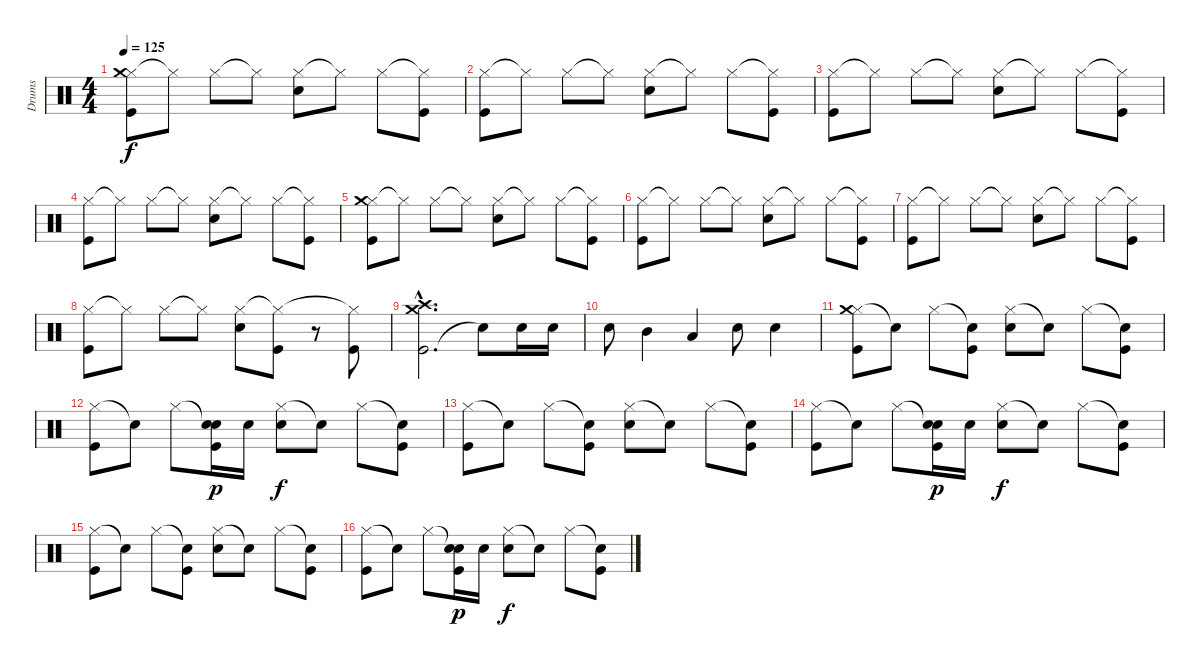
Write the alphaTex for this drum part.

\track ("Drums" "Drums") {instrument percussion}
\staff {score}
\articulation defaults
\ts (4 4)
\tempo 125
\clef neutral
\ks c
("Hi-Hat (closed)" "Kick (hit)" "Crash medium (hit)").8{dy f} "Hi-Hat (closed)"{t}.8 "Hi-Hat (closed)".8 "Hi-Hat (closed)"{t}.8 ("Hi-Hat (closed)" "Snare (hit) 2").8 "Hi-Hat (closed)"{t}.8 "Hi-Hat (closed)".8 ("Hi-Hat (closed)"{t} "Kick (hit)").8 |
("Hi-Hat (closed)" "Kick (hit)").8 "Hi-Hat (closed)"{t}.8 "Hi-Hat (closed)".8 "Hi-Hat (closed)"{t}.8 ("Hi-Hat (closed)" "Snare (hit) 2").8 "Hi-Hat (closed)"{t}.8 "Hi-Hat (closed)".8 ("Hi-Hat (closed)"{t} "Kick (hit)").8 |
("Hi-Hat (closed)" "Kick (hit)").8 "Hi-Hat (closed)"{t}.8 "Hi-Hat (closed)".8 "Hi-Hat (closed)"{t}.8 ("Hi-Hat (closed)" "Snare (hit) 2").8 "Hi-Hat (closed)"{t}.8 "Hi-Hat (closed)".8 ("Hi-Hat (closed)"{t} "Kick (hit)").8 |
("Hi-Hat (closed)" "Kick (hit)").8 "Hi-Hat (closed)"{t}.8 "Hi-Hat (closed)".8 "Hi-Hat (closed)"{t}.8 ("Hi-Hat (closed)" "Snare (hit) 2").8 "Hi-Hat (closed)"{t}.8 "Hi-Hat (closed)".8 ("Hi-Hat (closed)"{t} "Kick (hit)").8 |
("Hi-Hat (closed)" "Kick (hit)" "Crash medium (hit)").8 "Hi-Hat (closed)"{t}.8 "Hi-Hat (closed)".8 "Hi-Hat (closed)"{t}.8 ("Hi-Hat (closed)" "Snare (hit) 2").8 "Hi-Hat (closed)"{t}.8 "Hi-Hat (closed)".8 ("Hi-Hat (closed)"{t} "Kick (hit)").8 |
("Hi-Hat (closed)" "Kick (hit)").8 "Hi-Hat (closed)"{t}.8 "Hi-Hat (closed)".8 "Hi-Hat (closed)"{t}.8 ("Hi-Hat (closed)" "Snare (hit) 2").8 "Hi-Hat (closed)"{t}.8 "Hi-Hat (closed)".8 ("Hi-Hat (closed)"{t} "Kick (hit)").8 |
("Hi-Hat (closed)" "Kick (hit)").8 "Hi-Hat (closed)"{t}.8 "Hi-Hat (closed)".8 "Hi-Hat (closed)"{t}.8 ("Hi-Hat (closed)" "Snare (hit) 2").8 "Hi-Hat (closed)"{t}.8 "Hi-Hat (closed)".8 ("Hi-Hat (closed)"{t} "Kick (hit)").8 |
("Hi-Hat (closed)" "Kick (hit)").8 "Hi-Hat (closed)"{t}.8 "Hi-Hat (closed)".8 "Hi-Hat (closed)"{t}.8 ("Hi-Hat (closed)" "Snare (hit) 2").8 ("Hi-Hat (closed)"{t} "Kick (hit)").8 r.8 ("Hi-Hat (closed)"{t} "Kick (hit)").8 |
("Kick (hit)"{hac} "Crash high (hit)"{hac} "Crash medium (hit)"{hac}).2{d} "Snare (hit)"{t}.8 "Snare (hit) 2".16 "Snare (hit) 2".16 |
"Snare (hit) 2".8 "Mid Tom (hit)".4 "Low Tom (hit)".4 "Snare (hit) 2".8 "Snare (hit) 2".4 |
("Hi-Hat (closed)" "Crash medium (hit)" "Kick (hit)").8 "Snare (hit)"{t}.8 "Hi-Hat (closed)".8 ("Snare (hit)"{t} "Kick (hit)").8 ("Hi-Hat (closed)" "Snare (hit) 2").8 "Snare (hit)"{t}.8 "Hi-Hat (closed)".8 ("Snare (hit)"{t} "Kick (hit)").8 |
("Hi-Hat (closed)" "Kick (hit)").8 "Snare (hit)"{t}.8 "Hi-Hat (closed)".8 ("Snare (hit)"{t} "Kick (hit)" "Snare (hit) 2").16{dy p} "Snare (hit) 2".16 ("Hi-Hat (closed)" "Snare (hit) 2").8{dy f} "Snare (hit)"{t}.8 "Hi-Hat (closed)".8 ("Snare (hit)"{t} "Kick (hit)").8 |
("Hi-Hat (closed)" "Kick (hit)").8 "Snare (hit)"{t}.8 "Hi-Hat (closed)".8 ("Snare (hit)"{t} "Kick (hit)").8 ("Hi-Hat (closed)" "Snare (hit) 2").8 "Snare (hit)"{t}.8 "Hi-Hat (closed)".8 ("Snare (hit)"{t} "Kick (hit)").8 |
("Hi-Hat (closed)" "Kick (hit)").8 "Snare (hit)"{t}.8 "Hi-Hat (closed)".8 ("Snare (hit)"{t} "Kick (hit)" "Snare (hit) 2").16{dy p} "Snare (hit) 2".16 ("Hi-Hat (closed)" "Snare (hit) 2").8{dy f} "Snare (hit)"{t}.8 "Hi-Hat (closed)".8 ("Snare (hit)"{t} "Kick (hit)").8 |
("Hi-Hat (closed)" "Kick (hit)").8 "Snare (hit)"{t}.8 "Hi-Hat (closed)".8 ("Snare (hit)"{t} "Kick (hit)").8 ("Hi-Hat (closed)" "Snare (hit) 2").8 "Snare (hit)"{t}.8 "Hi-Hat (closed)".8 ("Snare (hit)"{t} "Kick (hit)").8 |
("Hi-Hat (closed)" "Kick (hit)").8 "Snare (hit)"{t}.8 "Hi-Hat (closed)".8 ("Snare (hit)"{t} "Kick (hit)" "Snare (hit) 2").16{dy p} "Snare (hit) 2".16 ("Hi-Hat (closed)" "Snare (hit) 2").8{dy f} "Snare (hit)"{t}.8 "Hi-Hat (closed)".8 ("Snare (hit)"{t} "Kick (hit)").8
